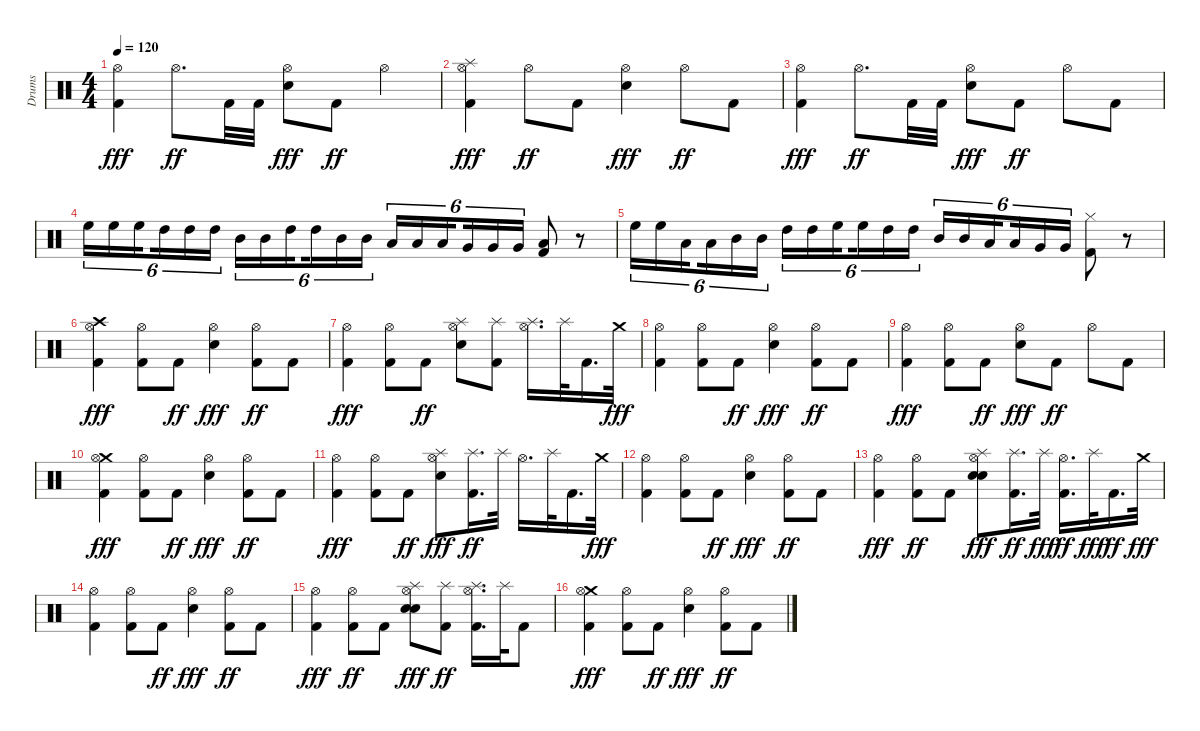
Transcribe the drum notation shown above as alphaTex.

\track ("Drums" "Drums") {instrument percussion}
\staff {score}
\articulation defaults
\ts (4 4)
\tempo 120
\clef neutral
\ks c
("Hi-Hat (open)" "Kick (hit) 2").4{dy fff} "Hi-Hat (open)".8{d dy ff} "Kick (hit) 2".32 "Kick (hit) 2".32 ("Hi-Hat (open)" "Snare (hit) 2").8{dy fff} "Kick (hit) 2".8{dy ff} "Hi-Hat (open)".4 |
("Splash (hit)" "Hi-Hat (open)" "Kick (hit) 2").4{dy fff} "Hi-Hat (open)".8{dy ff} "Kick (hit) 2".8 ("Hi-Hat (open)" "Snare (hit) 2").4{dy fff} "Hi-Hat (open)".8{dy ff} "Kick (hit) 2".8 |
("Hi-Hat (open)" "Kick (hit) 2").4{dy fff} "Hi-Hat (open)".8{d dy ff} "Kick (hit) 2".32 "Kick (hit) 2".32 ("Hi-Hat (open)" "Snare (hit) 2").8{dy fff} "Kick (hit) 2".8{dy ff} "Hi-Hat (open)".8 "Kick (hit) 2".8 |
"High Floor Tom (hit)".16{tu (6 4)} "High Floor Tom (hit)".16{tu (6 4)} "High Floor Tom (hit)".16{tu (6 4) beam splitsecondary} "High Tom (hit)".16{tu (6 4)} "High Tom (hit)".16{tu (6 4)} "High Tom (hit)".16{tu (6 4)} "Mid Tom (hit)".16{tu (6 4)} "Mid Tom (hit)".16{tu (6 4)} "High Tom (hit)".16{tu (6 4) beam splitsecondary} "High Tom (hit)".16{tu (6 4)} "Mid Tom (hit)".16{tu (6 4)} "Mid Tom (hit)".16{tu (6 4)} "Low Tom (hit)".16{tu (6 4)} "Low Tom (hit)".16{tu (6 4)} "Low Tom (hit)".16{tu (6 4) beam splitsecondary} "Very Low Tom (hit)".16{tu (6 4)} "Very Low Tom (hit)".16{tu (6 4)} "Very Low Tom (hit)".16{tu (6 4)} ("Low Floor Tom (hit)" "Kick (hit) 2").8 r.8 |
"High Floor Tom (hit)".16{tu (6 4)} "High Floor Tom (hit)".16{tu (6 4)} "Low Tom (hit)".16{tu (6 4) beam splitsecondary} "Low Tom (hit)".16{tu (6 4)} "Mid Tom (hit)".16{tu (6 4)} "Mid Tom (hit)".16{tu (6 4)} "High Tom (hit)".16{tu (6 4)} "High Tom (hit)".16{tu (6 4)} "High Floor Tom (hit)".16{tu (6 4) beam splitsecondary} "High Floor Tom (hit)".16{tu (6 4)} "High Tom (hit)".16{tu (6 4)} "High Tom (hit)".16{tu (6 4)} "Mid Tom (hit)".16{tu (6 4)} "Mid Tom (hit)".16{tu (6 4)} "Low Tom (hit)".16{tu (6 4) beam splitsecondary} "Low Tom (hit)".16{tu (6 4)} "Very Low Tom (hit)".16{tu (6 4)} "Very Low Tom (hit)".16{tu (6 4)} ("Hi-Hat (closed)" "Kick (hit) 2").8 r.8 |
("Hi-Hat (open)" "Kick (hit) 2" "Crash high (hit)").4{dy fff} ("Hi-Hat (open)" "Kick (hit) 2").8 "Kick (hit) 2".8{dy ff} ("Hi-Hat (open)" "Snare (hit) 2").4{dy fff} ("Hi-Hat (open)" "Kick (hit) 2").8{dy ff} "Kick (hit) 2".8 |
("Hi-Hat (open)" "Kick (hit) 2").4{dy fff} ("Hi-Hat (open)" "Kick (hit) 2").8 "Kick (hit) 2".8{dy ff} ("Hi-Hat (open)" "Snare (hit) 2" "Splash (hit)").8 ("Splash (hit)" "Kick (hit) 2").8 ("Splash (hit)" "Hi-Hat (open)").16{d} "Splash (hit)".32 "Kick (hit) 2".16{d} "Crash medium (hit)".32{dy fff} |
("Hi-Hat (open)" "Kick (hit) 2").4 ("Hi-Hat (open)" "Kick (hit) 2").8 "Kick (hit) 2".8{dy ff} ("Hi-Hat (open)" "Snare (hit) 2").4{dy fff} ("Hi-Hat (open)" "Kick (hit) 2").8{dy ff} "Kick (hit) 2".8 |
("Hi-Hat (open)" "Kick (hit) 2").4{dy fff} ("Hi-Hat (open)" "Kick (hit) 2").8 "Kick (hit) 2".8{dy ff} ("Hi-Hat (open)" "Snare (hit) 2").8{dy fff} "Kick (hit) 2".8{dy ff} "Hi-Hat (open)".8 "Kick (hit) 2".8 |
("Crash medium (hit)" "Hi-Hat (open)" "Kick (hit) 2").4{dy fff} ("Hi-Hat (open)" "Kick (hit) 2").8 "Kick (hit) 2".8{dy ff} ("Hi-Hat (open)" "Snare (hit) 2").4{dy fff} ("Hi-Hat (open)" "Kick (hit) 2").8{dy ff} "Kick (hit) 2".8 |
("Hi-Hat (open)" "Kick (hit) 2").4{dy fff} ("Hi-Hat (open)" "Kick (hit) 2").8 "Kick (hit) 2".8{dy ff} ("Splash (hit)" "Hi-Hat (open)" "Snare (hit) 2").8{dy fff} ("Splash (hit)" "Kick (hit) 2").16{d dy ff} "Splash (hit)".32 "Hi-Hat (open)".16{d} "Splash (hit)".32 "Kick (hit) 2".16{d} "Crash medium (hit)".32{dy fff} |
("Hi-Hat (open)" "Kick (hit) 2").4 ("Hi-Hat (open)" "Kick (hit) 2").8 "Kick (hit) 2".8{dy ff} ("Hi-Hat (open)" "Snare (hit) 2").4{dy fff} ("Hi-Hat (open)" "Kick (hit) 2").8{dy ff} "Kick (hit) 2".8 |
("Hi-Hat (open)" "Kick (hit) 2").4{dy fff} ("Hi-Hat (open)" "Kick (hit) 2").8{dy ff} "Kick (hit) 2".8 ("Snare (hit) 2" "Splash (hit)" "Hi-Hat (open)" "Electric Snare (hit)").8{dy fff} ("Splash (hit)" "Kick (hit) 2").16{d dy ff} "Splash (hit)".32{dy fff} ("Hi-Hat (open)" "Kick (hit) 2").16{d dy ff} "Splash (hit)".32{dy fff} "Kick (hit) 2".16{d dy ff} "Crash medium (hit)".32{dy fff} |
("Hi-Hat (open)" "Kick (hit) 2").4 ("Hi-Hat (open)" "Kick (hit) 2").8 "Kick (hit) 2".8{dy ff} ("Hi-Hat (open)" "Snare (hit) 2").4{dy fff} ("Hi-Hat (open)" "Kick (hit) 2").8{dy ff} "Kick (hit) 2".8 |
("Hi-Hat (open)" "Kick (hit) 2").4{dy fff} ("Hi-Hat (open)" "Kick (hit) 2").8{dy ff} "Kick (hit) 2".8 ("Snare (hit) 2" "Splash (hit)" "Hi-Hat (open)" "Electric Snare (hit)").8{dy fff} ("Splash (hit)" "Kick (hit) 2").8{dy ff} ("Splash (hit)" "Hi-Hat (open)" "Kick (hit) 2").16{d} "Splash (hit)".32 "Kick (hit) 2".8 |
("Crash medium (hit)" "Hi-Hat (open)" "Kick (hit) 2").4{dy fff} ("Hi-Hat (open)" "Kick (hit) 2").8 "Kick (hit) 2".8{dy ff} ("Hi-Hat (open)" "Snare (hit) 2").4{dy fff} ("Hi-Hat (open)" "Kick (hit) 2").8{dy ff} "Kick (hit) 2".8
